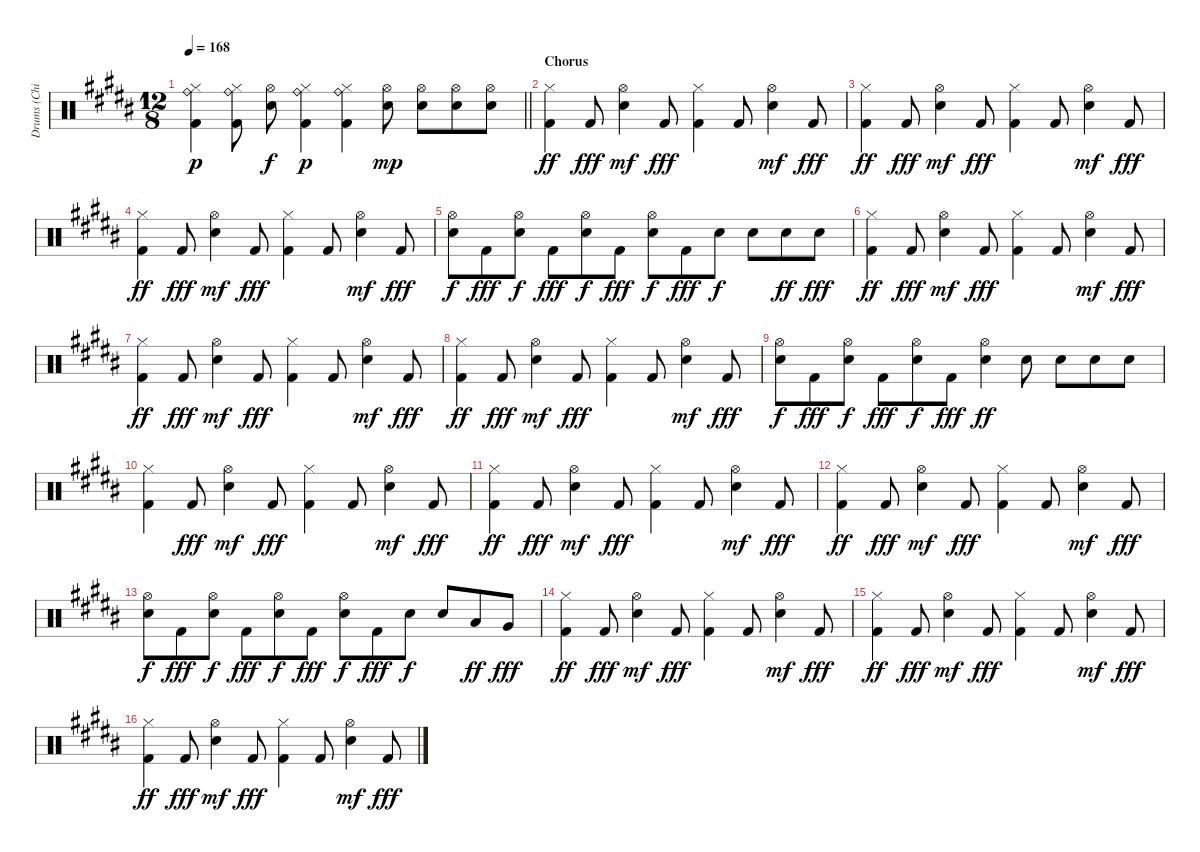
\track ("Drums (Chinyakov)" "Drums (Chi") {instrument percussion}
\staff {score}
\articulation defaults
\ts (12 8)
\tempo 168
\clef neutral
\barLineRight lightlight
\ks b
("Kick (hit) 2" "Hi-Hat (closed)" "Ride (bell)").4{dy p} ("Kick (hit) 2" "Hi-Hat (closed)" "Ride (bell)").8 ("Electric Snare (hit)" "Hi-Hat (open)").8{dy f} ("Kick (hit) 2" "Hi-Hat (closed)" "Ride (bell)").4{dy p} ("Kick (hit) 2" "Hi-Hat (closed)" "Ride (bell)").4 ("Electric Snare (hit)" "Hi-Hat (open)").8{dy mp} ("Electric Snare (hit)" "Hi-Hat (open)").8 ("Electric Snare (hit)" "Hi-Hat (open)").8 ("Electric Snare (hit)" "Hi-Hat (open)").8 |
\section ("" "Chorus")
("Kick (hit) 2" "Hi-Hat (closed)").4{dy ff} "Kick (hit) 2".8{dy fff} ("Electric Snare (hit)" "Hi-Hat (open)").4{dy mf} "Kick (hit) 2".8{dy fff} ("Kick (hit) 2" "Hi-Hat (closed)").4 "Kick (hit) 2".8 ("Electric Snare (hit)" "Hi-Hat (open)").4{dy mf} "Kick (hit) 2".8{dy fff} |
("Kick (hit) 2" "Hi-Hat (closed)").4{dy ff} "Kick (hit) 2".8{dy fff} ("Electric Snare (hit)" "Hi-Hat (open)").4{dy mf} "Kick (hit) 2".8{dy fff} ("Kick (hit) 2" "Hi-Hat (closed)").4 "Kick (hit) 2".8 ("Electric Snare (hit)" "Hi-Hat (open)").4{dy mf} "Kick (hit) 2".8{dy fff} |
("Kick (hit) 2" "Hi-Hat (closed)").4{dy ff} "Kick (hit) 2".8{dy fff} ("Electric Snare (hit)" "Hi-Hat (open)").4{dy mf} "Kick (hit) 2".8{dy fff} ("Kick (hit) 2" "Hi-Hat (closed)").4 "Kick (hit) 2".8 ("Electric Snare (hit)" "Hi-Hat (open)").4{dy mf} "Kick (hit) 2".8{dy fff} |
("Electric Snare (hit)" "Hi-Hat (open)").8{dy f} "Kick (hit) 2".8{dy fff} ("Electric Snare (hit)" "Hi-Hat (open)").8{dy f} "Kick (hit) 2".8{dy fff} ("Electric Snare (hit)" "Hi-Hat (open)").8{dy f} "Kick (hit) 2".8{dy fff} ("Electric Snare (hit)" "Hi-Hat (open)").8{dy f} "Kick (hit) 2".8{dy fff} "Electric Snare (hit)".8{dy f} "Electric Snare (hit)".8 "Electric Snare (hit)".8{dy ff} "Electric Snare (hit)".8{dy fff} |
("Kick (hit) 2" "Hi-Hat (closed)").4{dy ff} "Kick (hit) 2".8{dy fff} ("Electric Snare (hit)" "Hi-Hat (open)").4{dy mf} "Kick (hit) 2".8{dy fff} ("Kick (hit) 2" "Hi-Hat (closed)").4 "Kick (hit) 2".8 ("Electric Snare (hit)" "Hi-Hat (open)").4{dy mf} "Kick (hit) 2".8{dy fff} |
("Kick (hit) 2" "Hi-Hat (closed)").4{dy ff} "Kick (hit) 2".8{dy fff} ("Electric Snare (hit)" "Hi-Hat (open)").4{dy mf} "Kick (hit) 2".8{dy fff} ("Kick (hit) 2" "Hi-Hat (closed)").4 "Kick (hit) 2".8 ("Electric Snare (hit)" "Hi-Hat (open)").4{dy mf} "Kick (hit) 2".8{dy fff} |
("Kick (hit) 2" "Hi-Hat (closed)").4{dy ff} "Kick (hit) 2".8{dy fff} ("Electric Snare (hit)" "Hi-Hat (open)").4{dy mf} "Kick (hit) 2".8{dy fff} ("Kick (hit) 2" "Hi-Hat (closed)").4 "Kick (hit) 2".8 ("Electric Snare (hit)" "Hi-Hat (open)").4{dy mf} "Kick (hit) 2".8{dy fff} |
("Electric Snare (hit)" "Hi-Hat (open)").8{dy f} "Kick (hit) 2".8{dy fff} ("Electric Snare (hit)" "Hi-Hat (open)").8{dy f} "Kick (hit) 2".8{dy fff} ("Electric Snare (hit)" "Hi-Hat (open)").8{dy f} "Kick (hit) 2".8{dy fff} ("Electric Snare (hit)" "Hi-Hat (open)").4{dy ff} "Electric Snare (hit)".8 "Electric Snare (hit)".8 "Electric Snare (hit)".8 "Electric Snare (hit)".8 |
("Kick (hit) 2" "Hi-Hat (closed)").4 "Kick (hit) 2".8{dy fff} ("Electric Snare (hit)" "Hi-Hat (open)").4{dy mf} "Kick (hit) 2".8{dy fff} ("Kick (hit) 2" "Hi-Hat (closed)").4 "Kick (hit) 2".8 ("Electric Snare (hit)" "Hi-Hat (open)").4{dy mf} "Kick (hit) 2".8{dy fff} |
("Kick (hit) 2" "Hi-Hat (closed)").4{dy ff} "Kick (hit) 2".8{dy fff} ("Electric Snare (hit)" "Hi-Hat (open)").4{dy mf} "Kick (hit) 2".8{dy fff} ("Kick (hit) 2" "Hi-Hat (closed)").4 "Kick (hit) 2".8 ("Electric Snare (hit)" "Hi-Hat (open)").4{dy mf} "Kick (hit) 2".8{dy fff} |
("Kick (hit) 2" "Hi-Hat (closed)").4{dy ff} "Kick (hit) 2".8{dy fff} ("Electric Snare (hit)" "Hi-Hat (open)").4{dy mf} "Kick (hit) 2".8{dy fff} ("Kick (hit) 2" "Hi-Hat (closed)").4 "Kick (hit) 2".8 ("Electric Snare (hit)" "Hi-Hat (open)").4{dy mf} "Kick (hit) 2".8{dy fff} |
("Electric Snare (hit)" "Hi-Hat (open)").8{dy f} "Kick (hit) 2".8{dy fff} ("Electric Snare (hit)" "Hi-Hat (open)").8{dy f} "Kick (hit) 2".8{dy fff} ("Electric Snare (hit)" "Hi-Hat (open)").8{dy f} "Kick (hit) 2".8{dy fff} ("Electric Snare (hit)" "Hi-Hat (open)").8{dy f} "Kick (hit) 2".8{dy fff} "Electric Snare (hit)".8{dy f} "Electric Snare (hit)".8 "Low Tom (hit)".8{dy ff} "Very Low Tom (hit)".8{dy fff} |
("Kick (hit) 2" "Hi-Hat (closed)").4{dy ff} "Kick (hit) 2".8{dy fff} ("Electric Snare (hit)" "Hi-Hat (open)").4{dy mf} "Kick (hit) 2".8{dy fff} ("Kick (hit) 2" "Hi-Hat (closed)").4 "Kick (hit) 2".8 ("Electric Snare (hit)" "Hi-Hat (open)").4{dy mf} "Kick (hit) 2".8{dy fff} |
("Kick (hit) 2" "Hi-Hat (closed)").4{dy ff} "Kick (hit) 2".8{dy fff} ("Electric Snare (hit)" "Hi-Hat (open)").4{dy mf} "Kick (hit) 2".8{dy fff} ("Kick (hit) 2" "Hi-Hat (closed)").4 "Kick (hit) 2".8 ("Electric Snare (hit)" "Hi-Hat (open)").4{dy mf} "Kick (hit) 2".8{dy fff} |
("Kick (hit) 2" "Hi-Hat (closed)").4{dy ff} "Kick (hit) 2".8{dy fff} ("Electric Snare (hit)" "Hi-Hat (open)").4{dy mf} "Kick (hit) 2".8{dy fff} ("Kick (hit) 2" "Hi-Hat (closed)").4 "Kick (hit) 2".8 ("Electric Snare (hit)" "Hi-Hat (open)").4{dy mf} "Kick (hit) 2".8{dy fff}
